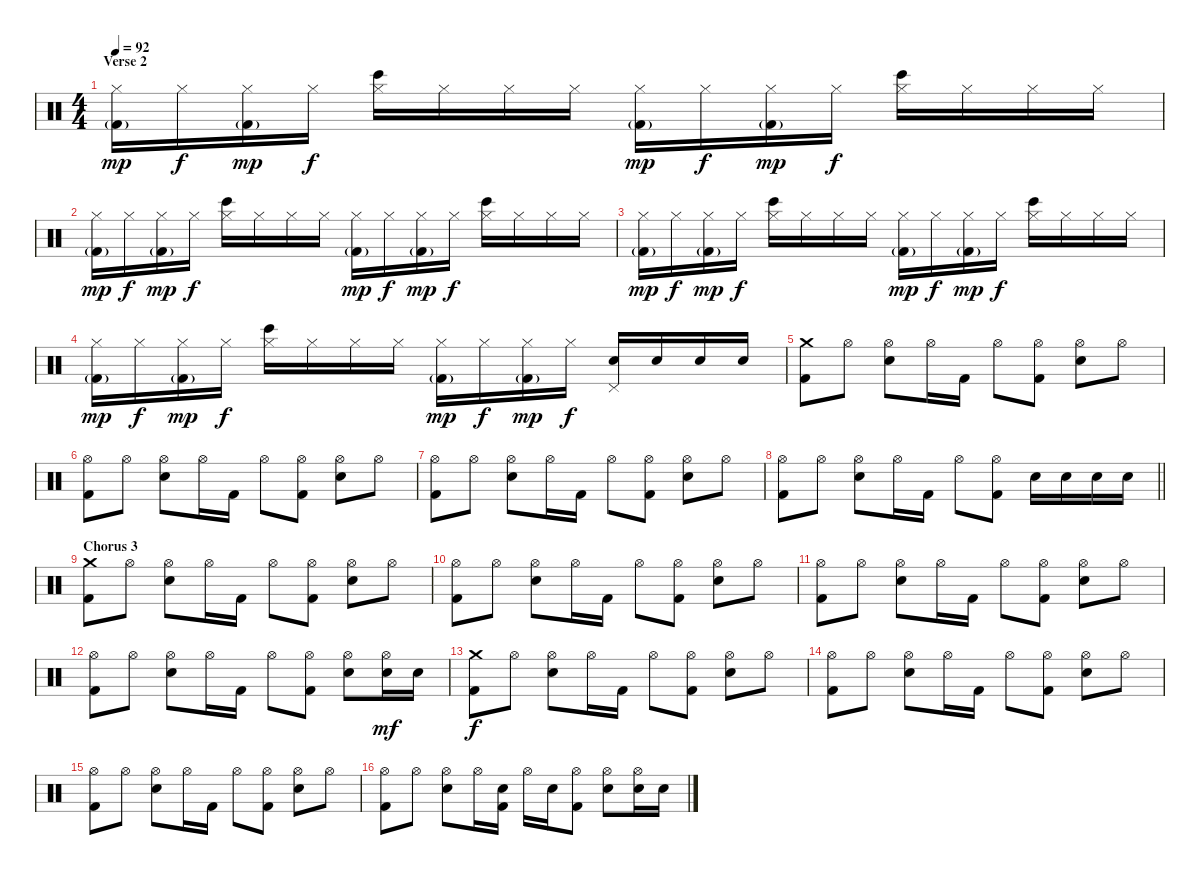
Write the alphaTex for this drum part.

\track "" {instrument percussion}
\staff {score}
\articulation defaults
\ts (4 4)
\section ("" "Verse 2")
\tempo 92
\clef neutral
\ks c
("Hi-Hat (closed)" "Kick (hit) 2"{g}).16{dy mp} "Hi-Hat (closed)".16{dy f} ("Hi-Hat (closed)" "Kick (hit) 2"{g}).16{dy mp} "Hi-Hat (closed)".16{dy f} ("Hi-Hat (closed)" "Bongo High (hit)").16 "Hi-Hat (closed)".16 "Hi-Hat (closed)".16 "Hi-Hat (closed)".16 ("Hi-Hat (closed)" "Kick (hit) 2"{g}).16{dy mp} "Hi-Hat (closed)".16{dy f} ("Hi-Hat (closed)" "Kick (hit) 2"{g}).16{dy mp} "Hi-Hat (closed)".16{dy f} ("Hi-Hat (closed)" "Bongo High (hit)").16 "Hi-Hat (closed)".16 "Hi-Hat (closed)".16 "Hi-Hat (closed)".16 |
("Hi-Hat (closed)" "Kick (hit) 2"{g}).16{dy mp} "Hi-Hat (closed)".16{dy f} ("Hi-Hat (closed)" "Kick (hit) 2"{g}).16{dy mp} "Hi-Hat (closed)".16{dy f} ("Hi-Hat (closed)" "Bongo High (hit)").16 "Hi-Hat (closed)".16 "Hi-Hat (closed)".16 "Hi-Hat (closed)".16 ("Hi-Hat (closed)" "Kick (hit) 2"{g}).16{dy mp} "Hi-Hat (closed)".16{dy f} ("Hi-Hat (closed)" "Kick (hit) 2"{g}).16{dy mp} "Hi-Hat (closed)".16{dy f} ("Hi-Hat (closed)" "Bongo High (hit)").16 "Hi-Hat (closed)".16 "Hi-Hat (closed)".16 "Hi-Hat (closed)".16 |
("Hi-Hat (closed)" "Kick (hit) 2"{g}).16{dy mp} "Hi-Hat (closed)".16{dy f} ("Hi-Hat (closed)" "Kick (hit) 2"{g}).16{dy mp} "Hi-Hat (closed)".16{dy f} ("Hi-Hat (closed)" "Bongo High (hit)").16 "Hi-Hat (closed)".16 "Hi-Hat (closed)".16 "Hi-Hat (closed)".16 ("Hi-Hat (closed)" "Kick (hit) 2"{g}).16{dy mp} "Hi-Hat (closed)".16{dy f} ("Hi-Hat (closed)" "Kick (hit) 2"{g}).16{dy mp} "Hi-Hat (closed)".16{dy f} ("Hi-Hat (closed)" "Bongo High (hit)").16 "Hi-Hat (closed)".16 "Hi-Hat (closed)".16 "Hi-Hat (closed)".16 |
("Hi-Hat (closed)" "Kick (hit) 2"{g}).16{dy mp} "Hi-Hat (closed)".16{dy f} ("Hi-Hat (closed)" "Kick (hit) 2"{g}).16{dy mp} "Hi-Hat (closed)".16{dy f} ("Hi-Hat (closed)" "Bongo High (hit)").16 "Hi-Hat (closed)".16 "Hi-Hat (closed)".16 "Hi-Hat (closed)".16 ("Hi-Hat (closed)" "Kick (hit) 2"{g}).16{dy mp} "Hi-Hat (closed)".16{dy f} ("Hi-Hat (closed)" "Kick (hit) 2"{g}).16{dy mp} "Hi-Hat (closed)".16{dy f} ("Pedal Hi-Hat (hit)" "Electric Snare (hit)").16 "Electric Snare (hit)".16 "Electric Snare (hit)".16 "Electric Snare (hit)".16 |
("Crash medium (hit)" "Kick (hit) 2").8 "Hi-Hat (open)".8 ("Hi-Hat (open)" "Electric Snare (hit)").8 "Hi-Hat (open)".16 "Kick (hit) 2".16 "Hi-Hat (open)".8 ("Hi-Hat (open)" "Kick (hit) 2").8 ("Hi-Hat (open)" "Electric Snare (hit)").8 "Hi-Hat (open)".8 |
("Hi-Hat (open)" "Kick (hit) 2").8 "Hi-Hat (open)".8 ("Hi-Hat (open)" "Electric Snare (hit)").8 "Hi-Hat (open)".16 "Kick (hit) 2".16 "Hi-Hat (open)".8 ("Hi-Hat (open)" "Kick (hit) 2").8 ("Hi-Hat (open)" "Electric Snare (hit)").8 "Hi-Hat (open)".8 |
("Hi-Hat (open)" "Kick (hit) 2").8 "Hi-Hat (open)".8 ("Hi-Hat (open)" "Electric Snare (hit)").8 "Hi-Hat (open)".16 "Kick (hit) 2".16 "Hi-Hat (open)".8 ("Hi-Hat (open)" "Kick (hit) 2").8 ("Hi-Hat (open)" "Electric Snare (hit)").8 "Hi-Hat (open)".8 |
\barLineRight lightlight
("Hi-Hat (open)" "Kick (hit) 2").8 "Hi-Hat (open)".8 ("Hi-Hat (open)" "Electric Snare (hit)").8 "Hi-Hat (open)".16 "Kick (hit) 2".16 "Hi-Hat (open)".8 ("Hi-Hat (open)" "Kick (hit) 2").8 "Electric Snare (hit)".16 "Electric Snare (hit)".16 "Electric Snare (hit)".16 "Electric Snare (hit)".16 |
\section ("" "Chorus 3")
("Crash medium (hit)" "Kick (hit) 2").8 "Hi-Hat (open)".8 ("Hi-Hat (open)" "Electric Snare (hit)").8 "Hi-Hat (open)".16 "Kick (hit) 2".16 "Hi-Hat (open)".8 ("Hi-Hat (open)" "Kick (hit) 2").8 ("Hi-Hat (open)" "Electric Snare (hit)").8 "Hi-Hat (open)".8 |
("Hi-Hat (open)" "Kick (hit) 2").8 "Hi-Hat (open)".8 ("Hi-Hat (open)" "Electric Snare (hit)").8 "Hi-Hat (open)".16 "Kick (hit) 2".16 "Hi-Hat (open)".8 ("Hi-Hat (open)" "Kick (hit) 2").8 ("Hi-Hat (open)" "Electric Snare (hit)").8 "Hi-Hat (open)".8 |
("Hi-Hat (open)" "Kick (hit) 2").8 "Hi-Hat (open)".8 ("Hi-Hat (open)" "Electric Snare (hit)").8 "Hi-Hat (open)".16 "Kick (hit) 2".16 "Hi-Hat (open)".8 ("Hi-Hat (open)" "Kick (hit) 2").8 ("Hi-Hat (open)" "Electric Snare (hit)").8 "Hi-Hat (open)".8 |
("Hi-Hat (open)" "Kick (hit) 2").8 "Hi-Hat (open)".8 ("Hi-Hat (open)" "Electric Snare (hit)").8 "Hi-Hat (open)".16 "Kick (hit) 2".16 "Hi-Hat (open)".8 ("Hi-Hat (open)" "Kick (hit) 2").8 ("Hi-Hat (open)" "Electric Snare (hit)").8 ("Hi-Hat (open)" "Electric Snare (hit)").16{dy mf} "Electric Snare (hit)".16 |
("Crash medium (hit)" "Kick (hit) 2").8{dy f} "Hi-Hat (open)".8 ("Hi-Hat (open)" "Electric Snare (hit)").8 "Hi-Hat (open)".16 "Kick (hit) 2".16 "Hi-Hat (open)".8 ("Hi-Hat (open)" "Kick (hit) 2").8 ("Hi-Hat (open)" "Electric Snare (hit)").8 "Hi-Hat (open)".8 |
("Hi-Hat (open)" "Kick (hit) 2").8 "Hi-Hat (open)".8 ("Hi-Hat (open)" "Electric Snare (hit)").8 "Hi-Hat (open)".16 "Kick (hit) 2".16 "Hi-Hat (open)".8 ("Hi-Hat (open)" "Kick (hit) 2").8 ("Hi-Hat (open)" "Electric Snare (hit)").8 "Hi-Hat (open)".8 |
("Hi-Hat (open)" "Kick (hit) 2").8 "Hi-Hat (open)".8 ("Hi-Hat (open)" "Electric Snare (hit)").8 "Hi-Hat (open)".16 "Kick (hit) 2".16 "Hi-Hat (open)".8 ("Hi-Hat (open)" "Kick (hit) 2").8 ("Hi-Hat (open)" "Electric Snare (hit)").8 "Hi-Hat (open)".8 |
("Hi-Hat (open)" "Kick (hit) 2").8 "Hi-Hat (open)".8 ("Hi-Hat (open)" "Electric Snare (hit)").8 "Hi-Hat (open)".16 ("Electric Snare (hit)" "Kick (hit) 2").16 "Hi-Hat (open)".16 "Electric Snare (hit)".16 ("Hi-Hat (open)" "Kick (hit) 2").8 ("Hi-Hat (open)" "Electric Snare (hit)").8 ("Hi-Hat (open)" "Electric Snare (hit)").16 "Electric Snare (hit)".16
